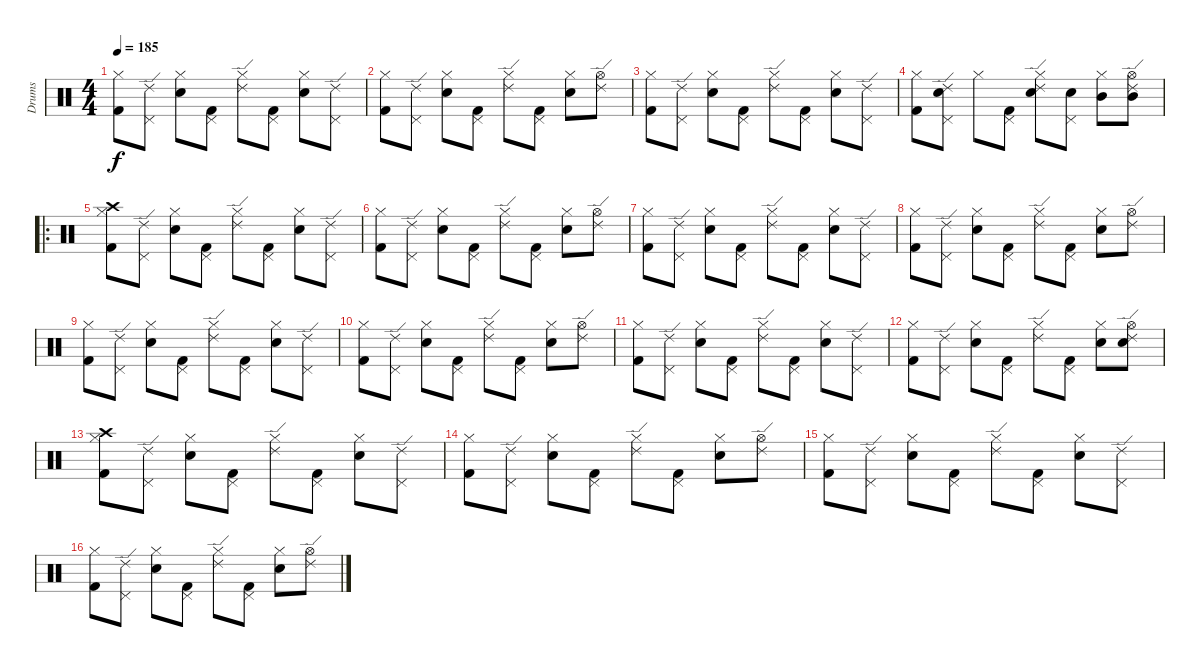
\track ("Drums" "Drums") {instrument percussion}
\staff {score}
\articulation defaults
\ts (4 4)
\tempo 185
\clef neutral
\ks c
("Kick (hit) 2" "Hi-Hat (closed)").8{dy f} ("Ride (edge) 2" "Pedal Hi-Hat (hit)").8 ("Electric Snare (hit)" "Hi-Hat (closed)").8 ("Kick (hit) 2" "Pedal Hi-Hat (hit)").8 ("Ride (edge) 2" "Hi-Hat (closed)").8 ("Kick (hit) 2" "Pedal Hi-Hat (hit)").8 ("Electric Snare (hit)" "Hi-Hat (closed)").8 ("Ride (edge) 2" "Pedal Hi-Hat (hit)").8 |
("Kick (hit) 2" "Hi-Hat (closed)").8 ("Ride (edge) 2" "Pedal Hi-Hat (hit)").8 ("Electric Snare (hit)" "Hi-Hat (closed)").8 ("Kick (hit) 2" "Pedal Hi-Hat (hit)").8 ("Ride (edge) 2" "Hi-Hat (closed)").8 ("Kick (hit) 2" "Pedal Hi-Hat (hit)").8 ("Electric Snare (hit)" "Hi-Hat (closed)").8 ("Ride (edge) 2" "Hi-Hat (open)").8 |
("Kick (hit) 2" "Hi-Hat (closed)").8 ("Ride (edge) 2" "Pedal Hi-Hat (hit)").8 ("Electric Snare (hit)" "Hi-Hat (closed)").8 ("Kick (hit) 2" "Pedal Hi-Hat (hit)").8 ("Ride (edge) 2" "Hi-Hat (closed)").8 ("Kick (hit) 2" "Pedal Hi-Hat (hit)").8 ("Electric Snare (hit)" "Hi-Hat (closed)").8 ("Ride (edge) 2" "Pedal Hi-Hat (hit)").8 |
("Kick (hit) 2" "Hi-Hat (closed)").8 ("Electric Snare (hit)" "Ride (edge) 2" "Pedal Hi-Hat (hit)").8 "Hi-Hat (closed)".8 ("Kick (hit) 2" "Pedal Hi-Hat (hit)").8 ("Electric Snare (hit)" "Ride (edge) 2" "Hi-Hat (closed)").8 ("Electric Snare (hit)" "Pedal Hi-Hat (hit)").8 ("Mid Tom (hit)" "Hi-Hat (closed)").8 ("Mid Tom (hit)" "Ride (edge) 2" "Hi-Hat (open)").8 |
\ro
("Kick (hit) 2" "Crash high (hit)" "Hi-Hat (closed)").8 ("Ride (edge) 2" "Pedal Hi-Hat (hit)").8 ("Electric Snare (hit)" "Hi-Hat (closed)").8 ("Kick (hit) 2" "Pedal Hi-Hat (hit)").8 ("Ride (edge) 2" "Hi-Hat (closed)").8 ("Kick (hit) 2" "Pedal Hi-Hat (hit)").8 ("Electric Snare (hit)" "Hi-Hat (closed)").8 ("Ride (edge) 2" "Pedal Hi-Hat (hit)").8 |
("Kick (hit) 2" "Hi-Hat (closed)").8 ("Ride (edge) 2" "Pedal Hi-Hat (hit)").8 ("Electric Snare (hit)" "Hi-Hat (closed)").8 ("Kick (hit) 2" "Pedal Hi-Hat (hit)").8 ("Ride (edge) 2" "Hi-Hat (closed)").8 ("Kick (hit) 2" "Pedal Hi-Hat (hit)").8 ("Electric Snare (hit)" "Hi-Hat (closed)").8 ("Ride (edge) 2" "Hi-Hat (open)").8 |
("Kick (hit) 2" "Hi-Hat (closed)").8 ("Ride (edge) 2" "Pedal Hi-Hat (hit)").8 ("Electric Snare (hit)" "Hi-Hat (closed)").8 ("Kick (hit) 2" "Pedal Hi-Hat (hit)").8 ("Ride (edge) 2" "Hi-Hat (closed)").8 ("Kick (hit) 2" "Pedal Hi-Hat (hit)").8 ("Electric Snare (hit)" "Hi-Hat (closed)").8 ("Ride (edge) 2" "Pedal Hi-Hat (hit)").8 |
("Kick (hit) 2" "Hi-Hat (closed)").8 ("Ride (edge) 2" "Pedal Hi-Hat (hit)").8 ("Electric Snare (hit)" "Hi-Hat (closed)").8 ("Kick (hit) 2" "Pedal Hi-Hat (hit)").8 ("Ride (edge) 2" "Hi-Hat (closed)").8 ("Kick (hit) 2" "Pedal Hi-Hat (hit)").8 ("Electric Snare (hit)" "Hi-Hat (closed)").8 ("Ride (edge) 2" "Hi-Hat (open)").8 |
("Kick (hit) 2" "Hi-Hat (closed)").8 ("Ride (edge) 2" "Pedal Hi-Hat (hit)").8 ("Electric Snare (hit)" "Hi-Hat (closed)").8 ("Kick (hit) 2" "Pedal Hi-Hat (hit)").8 ("Ride (edge) 2" "Hi-Hat (closed)").8 ("Kick (hit) 2" "Pedal Hi-Hat (hit)").8 ("Electric Snare (hit)" "Hi-Hat (closed)").8 ("Ride (edge) 2" "Pedal Hi-Hat (hit)").8 |
("Kick (hit) 2" "Hi-Hat (closed)").8 ("Ride (edge) 2" "Pedal Hi-Hat (hit)").8 ("Electric Snare (hit)" "Hi-Hat (closed)").8 ("Kick (hit) 2" "Pedal Hi-Hat (hit)").8 ("Ride (edge) 2" "Hi-Hat (closed)").8 ("Kick (hit) 2" "Pedal Hi-Hat (hit)").8 ("Electric Snare (hit)" "Hi-Hat (closed)").8 ("Ride (edge) 2" "Hi-Hat (open)").8 |
("Kick (hit) 2" "Hi-Hat (closed)").8 ("Ride (edge) 2" "Pedal Hi-Hat (hit)").8 ("Electric Snare (hit)" "Hi-Hat (closed)").8 ("Kick (hit) 2" "Pedal Hi-Hat (hit)").8 ("Ride (edge) 2" "Hi-Hat (closed)").8 ("Kick (hit) 2" "Pedal Hi-Hat (hit)").8 ("Electric Snare (hit)" "Hi-Hat (closed)").8 ("Ride (edge) 2" "Pedal Hi-Hat (hit)").8 |
("Kick (hit) 2" "Hi-Hat (closed)").8 ("Ride (edge) 2" "Pedal Hi-Hat (hit)").8 ("Electric Snare (hit)" "Hi-Hat (closed)").8 ("Kick (hit) 2" "Pedal Hi-Hat (hit)").8 ("Ride (edge) 2" "Hi-Hat (closed)").8 ("Kick (hit) 2" "Pedal Hi-Hat (hit)").8 ("Electric Snare (hit)" "Hi-Hat (closed)").8 ("Electric Snare (hit)" "Ride (edge) 2" "Hi-Hat (open)").8 |
("Kick (hit) 2" "Crash high (hit)" "Hi-Hat (closed)").8 ("Ride (edge) 2" "Pedal Hi-Hat (hit)").8 ("Electric Snare (hit)" "Hi-Hat (closed)").8 ("Kick (hit) 2" "Pedal Hi-Hat (hit)").8 ("Ride (edge) 2" "Hi-Hat (closed)").8 ("Kick (hit) 2" "Pedal Hi-Hat (hit)").8 ("Electric Snare (hit)" "Hi-Hat (closed)").8 ("Ride (edge) 2" "Pedal Hi-Hat (hit)").8 |
("Kick (hit) 2" "Hi-Hat (closed)").8 ("Ride (edge) 2" "Pedal Hi-Hat (hit)").8 ("Electric Snare (hit)" "Hi-Hat (closed)").8 ("Kick (hit) 2" "Pedal Hi-Hat (hit)").8 ("Ride (edge) 2" "Hi-Hat (closed)").8 ("Kick (hit) 2" "Pedal Hi-Hat (hit)").8 ("Electric Snare (hit)" "Hi-Hat (closed)").8 ("Ride (edge) 2" "Hi-Hat (open)").8 |
("Kick (hit) 2" "Hi-Hat (closed)").8 ("Ride (edge) 2" "Pedal Hi-Hat (hit)").8 ("Electric Snare (hit)" "Hi-Hat (closed)").8 ("Kick (hit) 2" "Pedal Hi-Hat (hit)").8 ("Ride (edge) 2" "Hi-Hat (closed)").8 ("Kick (hit) 2" "Pedal Hi-Hat (hit)").8 ("Electric Snare (hit)" "Hi-Hat (closed)").8 ("Ride (edge) 2" "Pedal Hi-Hat (hit)").8 |
("Kick (hit) 2" "Hi-Hat (closed)").8 ("Ride (edge) 2" "Pedal Hi-Hat (hit)").8 ("Electric Snare (hit)" "Hi-Hat (closed)").8 ("Kick (hit) 2" "Pedal Hi-Hat (hit)").8 ("Ride (edge) 2" "Hi-Hat (closed)").8 ("Kick (hit) 2" "Pedal Hi-Hat (hit)").8 ("Electric Snare (hit)" "Hi-Hat (closed)").8 ("Ride (edge) 2" "Hi-Hat (open)").8
